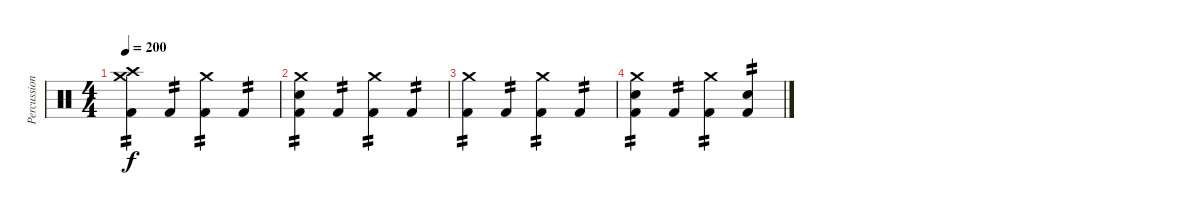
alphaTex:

\track ("Percussion" "Percussion") {instrument percussion}
\staff {score}
\articulation defaults
\ts (4 4)
\tempo 200
\clef neutral
\ks c
("Crash high (hit)" "Crash medium (hit)" "Kick (hit) 2").4{tp 2 dy f} "Kick (hit) 2".4{tp 2} ("Crash medium (hit)" "Kick (hit) 2").4{tp 2} "Kick (hit) 2".4{tp 2} |
("Crash medium (hit)" "Electric Snare (hit)" "Kick (hit) 2").4{tp 2} "Kick (hit) 2".4{tp 2} ("Crash medium (hit)" "Kick (hit) 2").4{tp 2} "Kick (hit) 2".4{tp 2} |
("Crash medium (hit)" "Kick (hit) 2").4{tp 2} "Kick (hit) 2".4{tp 2} ("Crash medium (hit)" "Kick (hit) 2").4{tp 2} "Kick (hit) 2".4{tp 2} |
("Crash medium (hit)" "Electric Snare (hit)" "Kick (hit) 2").4{tp 2} "Kick (hit) 2".4{tp 2} ("Crash medium (hit)" "Kick (hit) 2").4{tp 2} ("Electric Snare (hit)" "Kick (hit) 2").4{tp 2}
